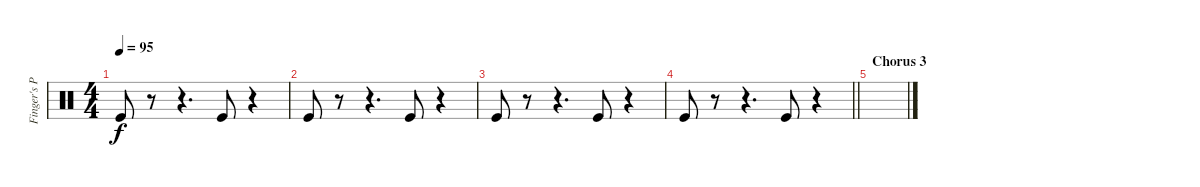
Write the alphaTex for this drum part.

\track ("Finger's Percussive" "Finger's P") {instrument percussion}
\staff {score}
\articulation defaults
\ts (4 4)
\tempo 95
\clef neutral
\ks c "Kick (hit)".8{dy f}
r.8 r.4{d} "Kick (hit)".8 r.4 |
"Kick (hit)".8 r.8 r.4{d} "Kick (hit)".8 r.4 |
"Kick (hit)".8 r.8 r.4{d} "Kick (hit)".8 r.4 |
\barLineRight lightlight "Kick (hit)".8
r.8 r.4{d} "Kick (hit)".8 r.4 |
\section ("" "Chorus 3")
